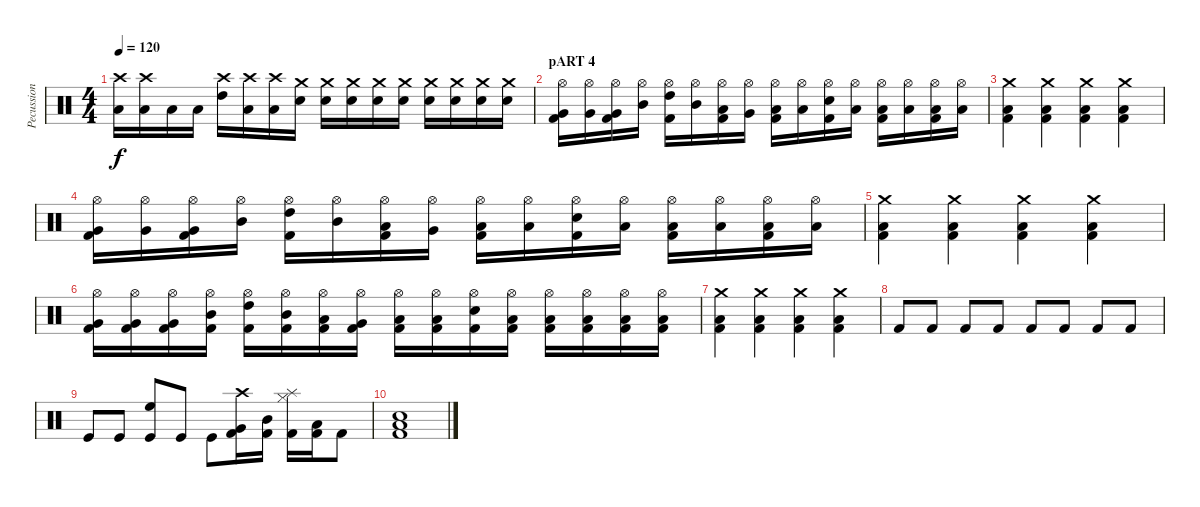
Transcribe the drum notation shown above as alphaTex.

\track ("Pecussion" "Pecussion") {instrument percussion}
\staff {score}
\articulation defaults
\ts (4 4)
\tempo 120
\clef neutral
\ks c
("Crash high (hit)" "Low Tom (hit)").16{dy f} ("Crash high (hit)" "Low Tom (hit)").16 "Low Tom (hit)".16 "Low Tom (hit)".16 ("High Tom (hit)" "Crash high (hit)").16 ("Crash high (hit)" "Low Tom (hit)").16 ("Crash high (hit)" "Low Tom (hit)").16 ("Crash medium (hit)" "Electric Snare (hit)").16 ("Crash medium (hit)" "Electric Snare (hit)").16 ("Crash medium (hit)" "Electric Snare (hit)").16 ("Crash medium (hit)" "Electric Snare (hit)").16 ("Crash medium (hit)" "Electric Snare (hit)").16 ("Crash medium (hit)" "Electric Snare (hit)").16 ("Crash medium (hit)" "Electric Snare (hit)").16 ("Crash medium (hit)" "Electric Snare (hit)").16 ("Crash medium (hit)" "Electric Snare (hit)").16 |
\section ("" "pART 4")
("Hi-Hat (open)" "Very Low Tom (hit)" "Kick (hit) 2").16 ("Hi-Hat (open)" "Very Low Tom (hit)").16 ("Hi-Hat (open)" "Very Low Tom (hit)" "Kick (hit) 2").16 ("Hi-Hat (open)" "Mid Tom (hit)").16 ("Hi-Hat (open)" "High Tom (hit)" "Kick (hit) 2").16 ("Hi-Hat (open)" "Mid Tom (hit)").16 ("Hi-Hat (open)" "Low Floor Tom (hit)" "Kick (hit) 2").16 ("Hi-Hat (open)" "Very Low Tom (hit)").16 ("Hi-Hat (open)" "Low Floor Tom (hit)" "Kick (hit) 2").16 ("Hi-Hat (open)" "Low Floor Tom (hit)").16 ("Hi-Hat (open)" "Snare (hit)" "Kick (hit) 2").16 ("Hi-Hat (open)" "Low Floor Tom (hit)").16 ("Hi-Hat (open)" "Low Floor Tom (hit)" "Kick (hit) 2").16 ("Hi-Hat (open)" "Low Floor Tom (hit)").16 ("Hi-Hat (open)" "Low Floor Tom (hit)" "Kick (hit) 2").16 ("Hi-Hat (open)" "Low Floor Tom (hit)").16 |
("Crash medium (hit)" "Low Floor Tom (hit)" "Kick (hit) 2").4 ("Crash medium (hit)" "Low Floor Tom (hit)" "Kick (hit) 2").4 ("Crash medium (hit)" "Low Floor Tom (hit)" "Kick (hit) 2").4 ("Crash medium (hit)" "Low Floor Tom (hit)" "Kick (hit) 2").4 |
("Hi-Hat (open)" "Very Low Tom (hit)" "Kick (hit) 2").16 ("Hi-Hat (open)" "Very Low Tom (hit)").16 ("Hi-Hat (open)" "Very Low Tom (hit)" "Kick (hit) 2").16 ("Hi-Hat (open)" "Mid Tom (hit)").16 ("Hi-Hat (open)" "High Tom (hit)" "Kick (hit) 2").16 ("Hi-Hat (open)" "Mid Tom (hit)").16 ("Hi-Hat (open)" "Low Floor Tom (hit)" "Kick (hit) 2").16 ("Hi-Hat (open)" "Very Low Tom (hit)").16 ("Hi-Hat (open)" "Low Floor Tom (hit)" "Kick (hit) 2").16 ("Hi-Hat (open)" "Low Floor Tom (hit)").16 ("Hi-Hat (open)" "Snare (hit)" "Kick (hit) 2").16 ("Hi-Hat (open)" "Low Floor Tom (hit)").16 ("Hi-Hat (open)" "Low Floor Tom (hit)" "Kick (hit) 2").16 ("Hi-Hat (open)" "Low Floor Tom (hit)").16 ("Hi-Hat (open)" "Low Floor Tom (hit)" "Kick (hit) 2").16 ("Hi-Hat (open)" "Low Floor Tom (hit)").16 |
("Crash medium (hit)" "Low Floor Tom (hit)" "Kick (hit) 2").4 ("Crash medium (hit)" "Low Floor Tom (hit)" "Kick (hit) 2").4 ("Crash medium (hit)" "Low Floor Tom (hit)" "Kick (hit) 2").4 ("Crash medium (hit)" "Low Floor Tom (hit)" "Kick (hit) 2").4 |
("Hi-Hat (open)" "Very Low Tom (hit)" "Kick (hit) 2").16 ("Hi-Hat (open)" "Very Low Tom (hit)" "Kick (hit) 2").16 ("Hi-Hat (open)" "Very Low Tom (hit)" "Kick (hit) 2").16 ("Hi-Hat (open)" "Mid Tom (hit)" "Kick (hit) 2").16 ("Hi-Hat (open)" "High Tom (hit)" "Kick (hit) 2").16 ("Hi-Hat (open)" "Mid Tom (hit)" "Kick (hit) 2").16 ("Hi-Hat (open)" "Low Floor Tom (hit)" "Kick (hit) 2").16 ("Hi-Hat (open)" "Very Low Tom (hit)" "Kick (hit) 2").16 ("Hi-Hat (open)" "Low Floor Tom (hit)" "Kick (hit) 2").16 ("Hi-Hat (open)" "Low Floor Tom (hit)" "Kick (hit) 2").16 ("Hi-Hat (open)" "Snare (hit)" "Kick (hit) 2").16 ("Hi-Hat (open)" "Low Floor Tom (hit)" "Kick (hit) 2").16 ("Hi-Hat (open)" "Low Floor Tom (hit)" "Kick (hit) 2").16 ("Hi-Hat (open)" "Low Floor Tom (hit)" "Kick (hit) 2").16 ("Hi-Hat (open)" "Low Floor Tom (hit)" "Kick (hit) 2").16 ("Hi-Hat (open)" "Low Floor Tom (hit)" "Kick (hit) 2").16 |
("Crash medium (hit)" "Low Floor Tom (hit)" "Kick (hit) 2").4 ("Crash medium (hit)" "Low Floor Tom (hit)" "Kick (hit) 2").4 ("Crash medium (hit)" "Low Floor Tom (hit)" "Kick (hit) 2").4 ("Crash medium (hit)" "Low Floor Tom (hit)" "Kick (hit) 2").4 |
"Kick (hit) 2".8 "Kick (hit) 2".8 "Kick (hit) 2".8 "Kick (hit) 2".8 "Kick (hit) 2".8 "Kick (hit) 2".8 "Kick (hit) 2".8 "Kick (hit) 2".8 |
"Kick (hit)".8 "Kick (hit)".8 ("High Floor Tom (hit)" "Kick (hit)").8 "Kick (hit)".8 "Kick (hit)".8 ("Very Low Tom (hit)" "Crash high (hit)" "Kick (hit) 2").16 ("Mid Tom (hit)" "Kick (hit) 2").16 ("Hi-Hat (closed)" "Splash (hit)" "Kick (hit) 2").16 ("Low Floor Tom (hit)" "Kick (hit) 2").16 "Kick (hit) 2".8 |
("Electric Snare (hit)" "Low Tom (hit)" "Kick (hit) 2").1
